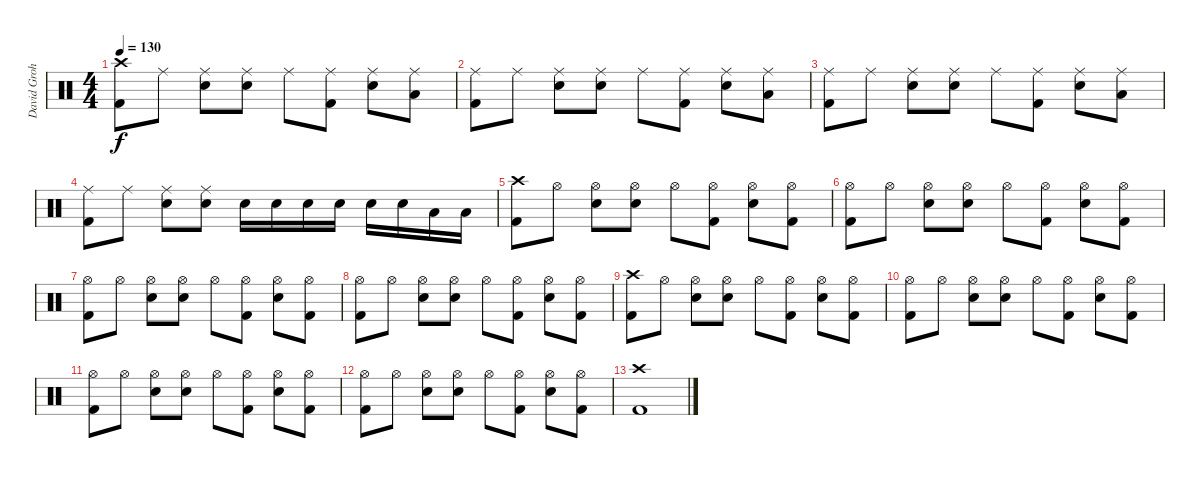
\track ("David Grohl" "David Groh") {instrument percussion}
\staff {score}
\articulation defaults
\ts (4 4)
\tempo 130
\clef neutral
\ks c
("Crash high (hit)" "Kick (hit) 2").8{dy f} "Ride (middle)".8 ("Ride (middle)" "Electric Snare (hit)").8 ("Ride (middle)" "Electric Snare (hit)").8 "Ride (middle)".8 ("Ride (middle)" "Kick (hit) 2").8 ("Ride (middle)" "Electric Snare (hit)").8 ("Ride (middle)" "Low Tom (hit)").8 |
("Ride (middle)" "Kick (hit) 2").8 "Ride (middle)".8 ("Ride (middle)" "Electric Snare (hit)").8 ("Ride (middle)" "Electric Snare (hit)").8 "Ride (middle)".8 ("Ride (middle)" "Kick (hit) 2").8 ("Ride (middle)" "Electric Snare (hit)").8 ("Ride (middle)" "Low Tom (hit)").8 |
("Ride (middle)" "Kick (hit) 2").8 "Ride (middle)".8 ("Ride (middle)" "Electric Snare (hit)").8 ("Ride (middle)" "Electric Snare (hit)").8 "Ride (middle)".8 ("Ride (middle)" "Kick (hit) 2").8 ("Ride (middle)" "Electric Snare (hit)").8 ("Ride (middle)" "Low Tom (hit)").8 |
("Ride (middle)" "Kick (hit) 2").8 "Ride (middle)".8 ("Ride (middle)" "Electric Snare (hit)").8 ("Ride (middle)" "Electric Snare (hit)").8 "Electric Snare (hit)".16 "Electric Snare (hit)".16 "Electric Snare (hit)".16 "Electric Snare (hit)".16 "Electric Snare (hit)".16 "Electric Snare (hit)".16 "Low Tom (hit)".16 "Low Tom (hit)".16 |
("Crash high (hit)" "Kick (hit) 2").8 "Hi-Hat (open)".8 ("Hi-Hat (open)" "Electric Snare (hit)").8 ("Hi-Hat (open)" "Electric Snare (hit)").8 "Hi-Hat (open)".8 ("Hi-Hat (open)" "Kick (hit) 2").8 ("Hi-Hat (open)" "Electric Snare (hit)").8 ("Hi-Hat (open)" "Kick (hit) 2").8 |
("Hi-Hat (open)" "Kick (hit) 2").8 "Hi-Hat (open)".8 ("Hi-Hat (open)" "Electric Snare (hit)").8 ("Hi-Hat (open)" "Electric Snare (hit)").8 "Hi-Hat (open)".8 ("Hi-Hat (open)" "Kick (hit) 2").8 ("Hi-Hat (open)" "Electric Snare (hit)").8 ("Hi-Hat (open)" "Kick (hit) 2").8 |
("Hi-Hat (open)" "Kick (hit) 2").8 "Hi-Hat (open)".8 ("Hi-Hat (open)" "Electric Snare (hit)").8 ("Hi-Hat (open)" "Electric Snare (hit)").8 "Hi-Hat (open)".8 ("Hi-Hat (open)" "Kick (hit) 2").8 ("Hi-Hat (open)" "Electric Snare (hit)").8 ("Hi-Hat (open)" "Kick (hit) 2").8 |
("Hi-Hat (open)" "Kick (hit) 2").8 "Hi-Hat (open)".8 ("Hi-Hat (open)" "Electric Snare (hit)").8 ("Hi-Hat (open)" "Electric Snare (hit)").8 "Hi-Hat (open)".8 ("Hi-Hat (open)" "Kick (hit) 2").8 ("Hi-Hat (open)" "Electric Snare (hit)").8 ("Hi-Hat (open)" "Kick (hit) 2").8 |
("Crash high (hit)" "Kick (hit) 2").8 "Hi-Hat (open)".8 ("Hi-Hat (open)" "Electric Snare (hit)").8 ("Hi-Hat (open)" "Electric Snare (hit)").8 "Hi-Hat (open)".8 ("Hi-Hat (open)" "Kick (hit) 2").8 ("Hi-Hat (open)" "Electric Snare (hit)").8 ("Hi-Hat (open)" "Kick (hit) 2").8 |
("Hi-Hat (open)" "Kick (hit) 2").8 "Hi-Hat (open)".8 ("Hi-Hat (open)" "Electric Snare (hit)").8 ("Hi-Hat (open)" "Electric Snare (hit)").8 "Hi-Hat (open)".8 ("Hi-Hat (open)" "Kick (hit) 2").8 ("Hi-Hat (open)" "Electric Snare (hit)").8 ("Hi-Hat (open)" "Kick (hit) 2").8 |
("Hi-Hat (open)" "Kick (hit) 2").8 "Hi-Hat (open)".8 ("Hi-Hat (open)" "Electric Snare (hit)").8 ("Hi-Hat (open)" "Electric Snare (hit)").8 "Hi-Hat (open)".8 ("Hi-Hat (open)" "Kick (hit) 2").8 ("Hi-Hat (open)" "Electric Snare (hit)").8 ("Hi-Hat (open)" "Kick (hit) 2").8 |
("Hi-Hat (open)" "Kick (hit) 2").8 "Hi-Hat (open)".8 ("Hi-Hat (open)" "Electric Snare (hit)").8 ("Hi-Hat (open)" "Electric Snare (hit)").8 "Hi-Hat (open)".8 ("Hi-Hat (open)" "Kick (hit) 2").8 ("Hi-Hat (open)" "Electric Snare (hit)").8 ("Hi-Hat (open)" "Kick (hit) 2").8 |
("Crash high (hit)" "Kick (hit) 2").1
